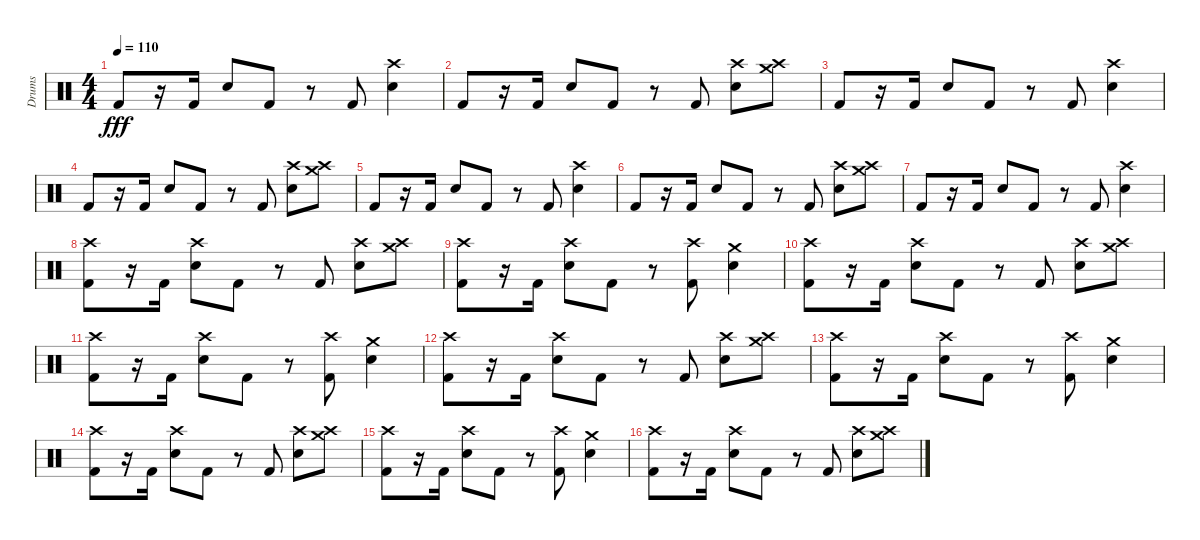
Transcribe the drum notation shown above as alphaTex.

\track ("Drums" "Drums") {instrument percussion}
\staff {score}
\articulation defaults
\ts (4 4)
\tempo 110
\clef neutral
\ks c "Kick (hit) 2".8{dy fff}
r.16 "Kick (hit) 2".16 "Electric Snare (hit)".8 "Kick (hit) 2".8 r.8 "Kick (hit) 2".8 ("Crash high (hit)" "Electric Snare (hit)").4 |
"Kick (hit) 2".8 r.16 "Kick (hit) 2".16 "Electric Snare (hit)".8 "Kick (hit) 2".8 r.8 "Kick (hit) 2".8 ("Crash high (hit)" "Electric Snare (hit)").8 ("Crash high (hit)" "Crash medium (hit)").8 |
"Kick (hit) 2".8 r.16 "Kick (hit) 2".16 "Electric Snare (hit)".8 "Kick (hit) 2".8 r.8 "Kick (hit) 2".8 ("Crash high (hit)" "Electric Snare (hit)").4 |
"Kick (hit) 2".8 r.16 "Kick (hit) 2".16 "Electric Snare (hit)".8 "Kick (hit) 2".8 r.8 "Kick (hit) 2".8 ("Crash high (hit)" "Electric Snare (hit)").8 ("Crash high (hit)" "Crash medium (hit)").8 |
"Kick (hit) 2".8 r.16 "Kick (hit) 2".16 "Electric Snare (hit)".8 "Kick (hit) 2".8 r.8 "Kick (hit) 2".8 ("Crash high (hit)" "Electric Snare (hit)").4 |
"Kick (hit) 2".8 r.16 "Kick (hit) 2".16 "Electric Snare (hit)".8 "Kick (hit) 2".8 r.8 "Kick (hit) 2".8 ("Crash high (hit)" "Electric Snare (hit)").8 ("Crash high (hit)" "Crash medium (hit)").8 |
"Kick (hit) 2".8 r.16 "Kick (hit) 2".16 "Electric Snare (hit)".8 "Kick (hit) 2".8 r.8 "Kick (hit) 2".8 ("Crash high (hit)" "Electric Snare (hit)").4 |
("Crash high (hit)" "Kick (hit) 2").8 r.16 "Kick (hit) 2".16 ("Crash high (hit)" "Electric Snare (hit)").8 "Kick (hit) 2".8 r.8 "Kick (hit) 2".8 ("Crash high (hit)" "Electric Snare (hit)").8 ("Crash high (hit)" "Crash medium (hit)").8 |
("Crash high (hit)" "Kick (hit) 2").8 r.16 "Kick (hit) 2".16 ("Crash high (hit)" "Electric Snare (hit)").8 "Kick (hit) 2".8 r.8 ("Crash high (hit)" "Kick (hit) 2").8 ("Crash medium (hit)" "Electric Snare (hit)").4 |
("Crash high (hit)" "Kick (hit) 2").8 r.16 "Kick (hit) 2".16 ("Crash high (hit)" "Electric Snare (hit)").8 "Kick (hit) 2".8 r.8 "Kick (hit) 2".8 ("Crash high (hit)" "Electric Snare (hit)").8 ("Crash high (hit)" "Crash medium (hit)").8 |
("Crash high (hit)" "Kick (hit) 2").8 r.16 "Kick (hit) 2".16 ("Crash high (hit)" "Electric Snare (hit)").8 "Kick (hit) 2".8 r.8 ("Crash high (hit)" "Kick (hit) 2").8 ("Crash medium (hit)" "Electric Snare (hit)").4 |
("Crash high (hit)" "Kick (hit) 2").8 r.16 "Kick (hit) 2".16 ("Crash high (hit)" "Electric Snare (hit)").8 "Kick (hit) 2".8 r.8 "Kick (hit) 2".8 ("Crash high (hit)" "Electric Snare (hit)").8 ("Crash high (hit)" "Crash medium (hit)").8 |
("Crash high (hit)" "Kick (hit) 2").8 r.16 "Kick (hit) 2".16 ("Crash high (hit)" "Electric Snare (hit)").8 "Kick (hit) 2".8 r.8 ("Crash high (hit)" "Kick (hit) 2").8 ("Crash medium (hit)" "Electric Snare (hit)").4 |
("Crash high (hit)" "Kick (hit) 2").8 r.16 "Kick (hit) 2".16 ("Crash high (hit)" "Electric Snare (hit)").8 "Kick (hit) 2".8 r.8 "Kick (hit) 2".8 ("Crash high (hit)" "Electric Snare (hit)").8 ("Crash high (hit)" "Crash medium (hit)").8 |
("Crash high (hit)" "Kick (hit) 2").8 r.16 "Kick (hit) 2".16 ("Crash high (hit)" "Electric Snare (hit)").8 "Kick (hit) 2".8 r.8 ("Crash high (hit)" "Kick (hit) 2").8 ("Crash medium (hit)" "Electric Snare (hit)").4 |
("Crash high (hit)" "Kick (hit) 2").8 r.16 "Kick (hit) 2".16 ("Crash high (hit)" "Electric Snare (hit)").8 "Kick (hit) 2".8 r.8 "Kick (hit) 2".8 ("Crash high (hit)" "Electric Snare (hit)").8 ("Crash high (hit)" "Crash medium (hit)").8
